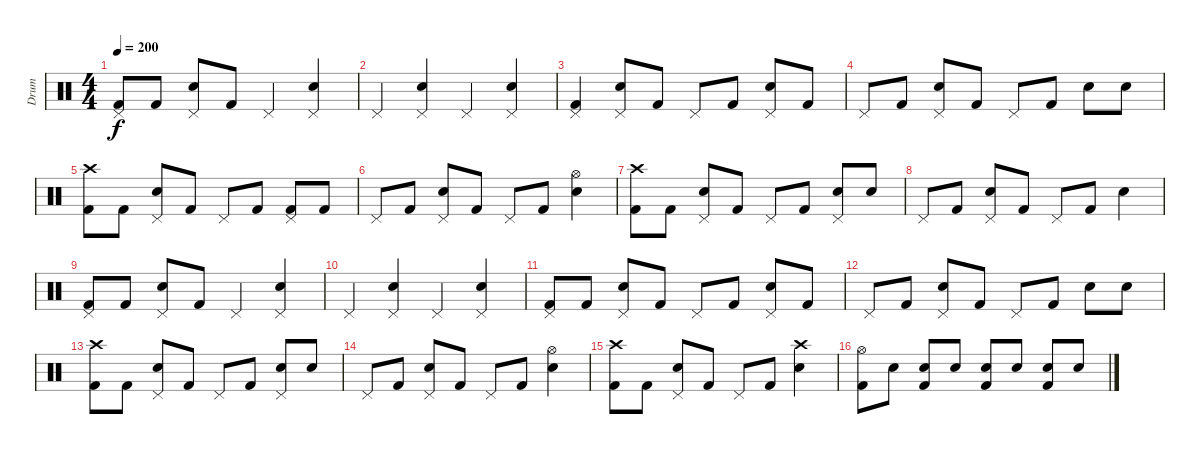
\track ("Drum" "Drum") {instrument percussion}
\staff {score}
\articulation defaults
\ts (4 4)
\tempo 200
\clef neutral
\ks c
("Pedal Hi-Hat (hit)" "Kick (hit) 2").8{dy f} "Kick (hit) 2".8 ("Pedal Hi-Hat (hit)" "Electric Snare (hit)").8 "Kick (hit) 2".8 "Pedal Hi-Hat (hit)".4 ("Pedal Hi-Hat (hit)" "Electric Snare (hit)").4 |
"Pedal Hi-Hat (hit)".4 ("Pedal Hi-Hat (hit)" "Electric Snare (hit)").4 "Pedal Hi-Hat (hit)".4 ("Pedal Hi-Hat (hit)" "Electric Snare (hit)").4 |
("Pedal Hi-Hat (hit)" "Kick (hit) 2").4 ("Pedal Hi-Hat (hit)" "Electric Snare (hit)").8 "Kick (hit) 2".8 "Pedal Hi-Hat (hit)".8 "Kick (hit) 2".8 ("Pedal Hi-Hat (hit)" "Electric Snare (hit)").8 "Kick (hit) 2".8 |
"Pedal Hi-Hat (hit)".8 "Kick (hit) 2".8 ("Pedal Hi-Hat (hit)" "Electric Snare (hit)").8 "Kick (hit) 2".8 "Pedal Hi-Hat (hit)".8 "Kick (hit) 2".8 "Electric Snare (hit)".8 "Electric Snare (hit)".8 |
("Crash high (hit)" "Kick (hit) 2").8 "Kick (hit) 2".8 ("Pedal Hi-Hat (hit)" "Electric Snare (hit)").8 "Kick (hit) 2".8 "Pedal Hi-Hat (hit)".8 "Kick (hit) 2".8 ("Pedal Hi-Hat (hit)" "Kick (hit) 2").8 "Kick (hit) 2".8 |
"Pedal Hi-Hat (hit)".8 "Kick (hit) 2".8 ("Pedal Hi-Hat (hit)" "Electric Snare (hit)").8 "Kick (hit) 2".8 "Pedal Hi-Hat (hit)".8 "Kick (hit) 2".8 ("Hi-Hat (open)" "Electric Snare (hit)").4 |
("Crash high (hit)" "Kick (hit) 2").8 "Kick (hit) 2".8 ("Pedal Hi-Hat (hit)" "Electric Snare (hit)").8 "Kick (hit) 2".8 "Pedal Hi-Hat (hit)".8 "Kick (hit) 2".8 ("Pedal Hi-Hat (hit)" "Electric Snare (hit)").8 "Electric Snare (hit)".8 |
"Pedal Hi-Hat (hit)".8 "Kick (hit) 2".8 ("Pedal Hi-Hat (hit)" "Electric Snare (hit)").8 "Kick (hit) 2".8 "Pedal Hi-Hat (hit)".8 "Kick (hit) 2".8 "Electric Snare (hit)".4 |
("Pedal Hi-Hat (hit)" "Kick (hit) 2").8 "Kick (hit) 2".8 ("Pedal Hi-Hat (hit)" "Electric Snare (hit)").8 "Kick (hit) 2".8 "Pedal Hi-Hat (hit)".4 ("Pedal Hi-Hat (hit)" "Electric Snare (hit)").4 |
"Pedal Hi-Hat (hit)".4 ("Pedal Hi-Hat (hit)" "Electric Snare (hit)").4 "Pedal Hi-Hat (hit)".4 ("Pedal Hi-Hat (hit)" "Electric Snare (hit)").4 |
("Pedal Hi-Hat (hit)" "Kick (hit) 2").8 "Kick (hit) 2".8 ("Pedal Hi-Hat (hit)" "Electric Snare (hit)").8 "Kick (hit) 2".8 "Pedal Hi-Hat (hit)".8 "Kick (hit) 2".8 ("Pedal Hi-Hat (hit)" "Electric Snare (hit)").8 "Kick (hit) 2".8 |
"Pedal Hi-Hat (hit)".8 "Kick (hit) 2".8 ("Pedal Hi-Hat (hit)" "Electric Snare (hit)").8 "Kick (hit) 2".8 "Pedal Hi-Hat (hit)".8 "Kick (hit) 2".8 "Electric Snare (hit)".8 "Electric Snare (hit)".8 |
("Crash high (hit)" "Kick (hit) 2").8 "Kick (hit) 2".8 ("Pedal Hi-Hat (hit)" "Electric Snare (hit)").8 "Kick (hit) 2".8 "Pedal Hi-Hat (hit)".8 "Kick (hit) 2".8 ("Pedal Hi-Hat (hit)" "Electric Snare (hit)").8 "Electric Snare (hit)".8 |
"Pedal Hi-Hat (hit)".8 "Kick (hit) 2".8 ("Pedal Hi-Hat (hit)" "Electric Snare (hit)").8 "Kick (hit) 2".8 "Pedal Hi-Hat (hit)".8 "Kick (hit) 2".8 ("Hi-Hat (open)" "Electric Snare (hit)").4 |
("Crash high (hit)" "Kick (hit) 2").8 "Kick (hit) 2".8 ("Pedal Hi-Hat (hit)" "Electric Snare (hit)").8 "Kick (hit) 2".8 "Pedal Hi-Hat (hit)".8 "Kick (hit) 2".8 ("Crash high (hit)" "Electric Snare (hit)").4 |
("Hi-Hat (open)" "Kick (hit) 2").8 "Electric Snare (hit)".8 ("Electric Snare (hit)" "Kick (hit) 2").8 "Electric Snare (hit)".8 ("Electric Snare (hit)" "Kick (hit) 2").8 "Electric Snare (hit)".8 ("Electric Snare (hit)" "Kick (hit) 2").8 "Electric Snare (hit)".8
